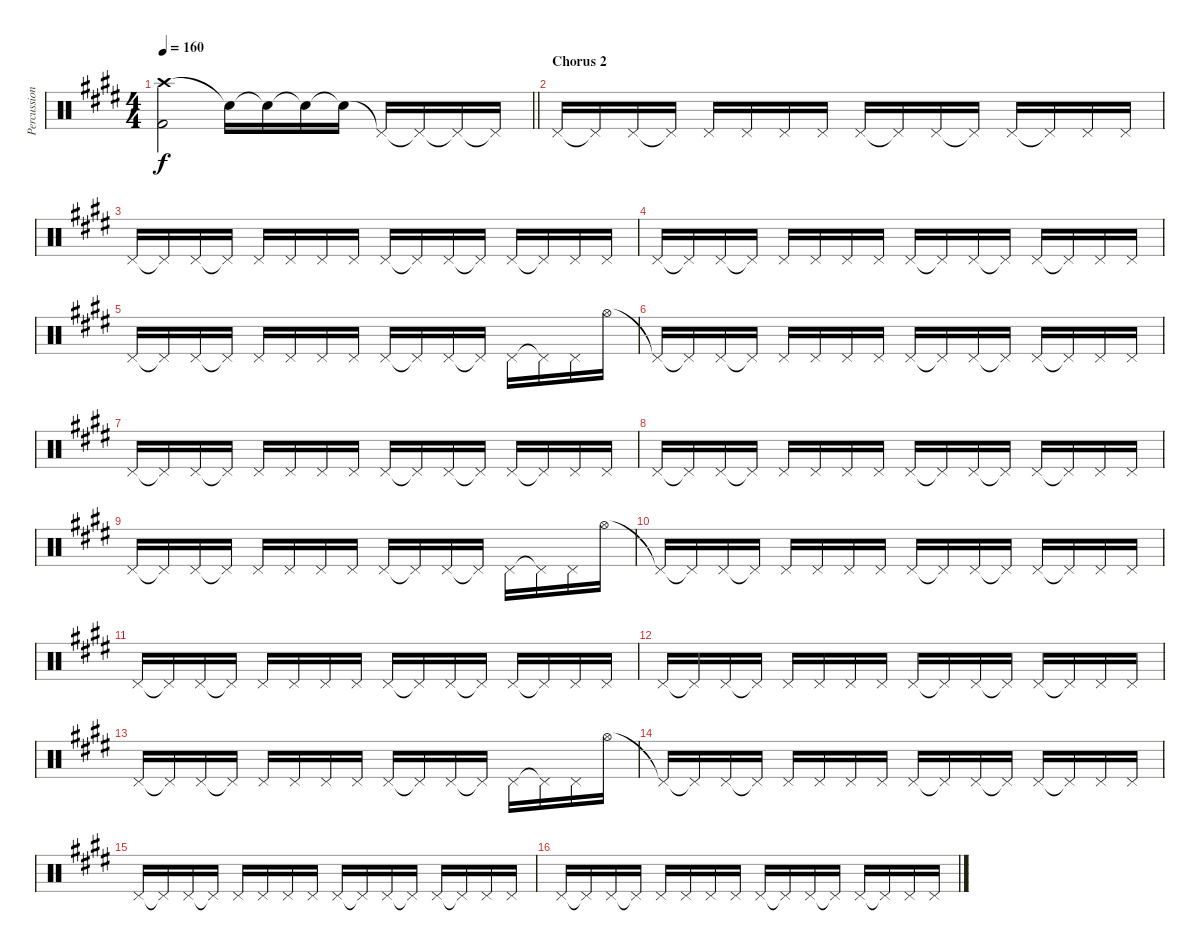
\track ("Percussion" "Percussion") {instrument percussion}
\staff {score}
\articulation defaults
\ts (4 4)
\tempo 160
\clef neutral
\barLineRight lightlight
\ks c#minor
("Crash high (hit)" "Kick (hit) 2").2{dy f} "Snare (hit)"{t}.16 "Snare (hit)"{t}.16 "Snare (hit)"{t}.16 "Snare (hit)"{t}.16 "Pedal Hi-Hat (hit)"{t}.16 "Pedal Hi-Hat (hit)"{t}.16 "Pedal Hi-Hat (hit)"{t}.16 "Pedal Hi-Hat (hit)"{t}.16 |
\section ("" "Chorus 2")
"Pedal Hi-Hat (hit)".16{volume 8} "Pedal Hi-Hat (hit)"{t}.16 "Pedal Hi-Hat (hit)".16 "Pedal Hi-Hat (hit)"{t}.16 "Pedal Hi-Hat (hit)".16 "Pedal Hi-Hat (hit)".16 "Pedal Hi-Hat (hit)".16 "Pedal Hi-Hat (hit)".16 "Pedal Hi-Hat (hit)".16 "Pedal Hi-Hat (hit)"{t}.16 "Pedal Hi-Hat (hit)".16 "Pedal Hi-Hat (hit)"{t}.16 "Pedal Hi-Hat (hit)".16 "Pedal Hi-Hat (hit)"{t}.16 "Pedal Hi-Hat (hit)".16 "Pedal Hi-Hat (hit)".16 |
"Pedal Hi-Hat (hit)".16 "Pedal Hi-Hat (hit)"{t}.16 "Pedal Hi-Hat (hit)".16 "Pedal Hi-Hat (hit)"{t}.16 "Pedal Hi-Hat (hit)".16 "Pedal Hi-Hat (hit)".16 "Pedal Hi-Hat (hit)".16 "Pedal Hi-Hat (hit)".16 "Pedal Hi-Hat (hit)".16 "Pedal Hi-Hat (hit)"{t}.16 "Pedal Hi-Hat (hit)".16 "Pedal Hi-Hat (hit)"{t}.16 "Pedal Hi-Hat (hit)".16 "Pedal Hi-Hat (hit)"{t}.16 "Pedal Hi-Hat (hit)".16 "Pedal Hi-Hat (hit)".16 |
"Pedal Hi-Hat (hit)".16 "Pedal Hi-Hat (hit)"{t}.16 "Pedal Hi-Hat (hit)".16 "Pedal Hi-Hat (hit)"{t}.16 "Pedal Hi-Hat (hit)".16 "Pedal Hi-Hat (hit)".16 "Pedal Hi-Hat (hit)".16 "Pedal Hi-Hat (hit)".16 "Pedal Hi-Hat (hit)".16 "Pedal Hi-Hat (hit)"{t}.16 "Pedal Hi-Hat (hit)".16 "Pedal Hi-Hat (hit)"{t}.16 "Pedal Hi-Hat (hit)".16 "Pedal Hi-Hat (hit)"{t}.16 "Pedal Hi-Hat (hit)".16 "Pedal Hi-Hat (hit)".16 |
"Pedal Hi-Hat (hit)".16 "Pedal Hi-Hat (hit)"{t}.16 "Pedal Hi-Hat (hit)".16 "Pedal Hi-Hat (hit)"{t}.16 "Pedal Hi-Hat (hit)".16 "Pedal Hi-Hat (hit)".16 "Pedal Hi-Hat (hit)".16 "Pedal Hi-Hat (hit)".16 "Pedal Hi-Hat (hit)".16 "Pedal Hi-Hat (hit)"{t}.16 "Pedal Hi-Hat (hit)".16 "Pedal Hi-Hat (hit)"{t}.16 "Pedal Hi-Hat (hit)".16 "Pedal Hi-Hat (hit)"{t}.16 "Pedal Hi-Hat (hit)".16 "Hi-Hat (open)".16 |
"Pedal Hi-Hat (hit)"{t}.16 "Pedal Hi-Hat (hit)"{t}.16 "Pedal Hi-Hat (hit)".16 "Pedal Hi-Hat (hit)"{t}.16 "Pedal Hi-Hat (hit)".16 "Pedal Hi-Hat (hit)".16 "Pedal Hi-Hat (hit)".16 "Pedal Hi-Hat (hit)".16 "Pedal Hi-Hat (hit)".16 "Pedal Hi-Hat (hit)"{t}.16 "Pedal Hi-Hat (hit)".16 "Pedal Hi-Hat (hit)"{t}.16 "Pedal Hi-Hat (hit)".16 "Pedal Hi-Hat (hit)"{t}.16 "Pedal Hi-Hat (hit)".16 "Pedal Hi-Hat (hit)".16 |
"Pedal Hi-Hat (hit)".16 "Pedal Hi-Hat (hit)"{t}.16 "Pedal Hi-Hat (hit)".16 "Pedal Hi-Hat (hit)"{t}.16 "Pedal Hi-Hat (hit)".16 "Pedal Hi-Hat (hit)".16 "Pedal Hi-Hat (hit)".16 "Pedal Hi-Hat (hit)".16 "Pedal Hi-Hat (hit)".16 "Pedal Hi-Hat (hit)"{t}.16 "Pedal Hi-Hat (hit)".16 "Pedal Hi-Hat (hit)"{t}.16 "Pedal Hi-Hat (hit)".16 "Pedal Hi-Hat (hit)"{t}.16 "Pedal Hi-Hat (hit)".16 "Pedal Hi-Hat (hit)".16 |
"Pedal Hi-Hat (hit)".16 "Pedal Hi-Hat (hit)"{t}.16 "Pedal Hi-Hat (hit)".16 "Pedal Hi-Hat (hit)"{t}.16 "Pedal Hi-Hat (hit)".16 "Pedal Hi-Hat (hit)".16 "Pedal Hi-Hat (hit)".16 "Pedal Hi-Hat (hit)".16 "Pedal Hi-Hat (hit)".16 "Pedal Hi-Hat (hit)"{t}.16 "Pedal Hi-Hat (hit)".16 "Pedal Hi-Hat (hit)"{t}.16 "Pedal Hi-Hat (hit)".16 "Pedal Hi-Hat (hit)"{t}.16 "Pedal Hi-Hat (hit)".16 "Pedal Hi-Hat (hit)".16 |
"Pedal Hi-Hat (hit)".16 "Pedal Hi-Hat (hit)"{t}.16 "Pedal Hi-Hat (hit)".16 "Pedal Hi-Hat (hit)"{t}.16 "Pedal Hi-Hat (hit)".16 "Pedal Hi-Hat (hit)".16 "Pedal Hi-Hat (hit)".16 "Pedal Hi-Hat (hit)".16 "Pedal Hi-Hat (hit)".16 "Pedal Hi-Hat (hit)"{t}.16 "Pedal Hi-Hat (hit)".16 "Pedal Hi-Hat (hit)"{t}.16 "Pedal Hi-Hat (hit)".16 "Pedal Hi-Hat (hit)"{t}.16 "Pedal Hi-Hat (hit)".16 "Hi-Hat (open)".16 |
"Pedal Hi-Hat (hit)"{t}.16 "Pedal Hi-Hat (hit)"{t}.16 "Pedal Hi-Hat (hit)".16 "Pedal Hi-Hat (hit)"{t}.16 "Pedal Hi-Hat (hit)".16 "Pedal Hi-Hat (hit)".16 "Pedal Hi-Hat (hit)".16 "Pedal Hi-Hat (hit)".16 "Pedal Hi-Hat (hit)".16 "Pedal Hi-Hat (hit)"{t}.16 "Pedal Hi-Hat (hit)".16 "Pedal Hi-Hat (hit)"{t}.16 "Pedal Hi-Hat (hit)".16 "Pedal Hi-Hat (hit)"{t}.16 "Pedal Hi-Hat (hit)".16 "Pedal Hi-Hat (hit)".16 |
"Pedal Hi-Hat (hit)".16 "Pedal Hi-Hat (hit)"{t}.16 "Pedal Hi-Hat (hit)".16 "Pedal Hi-Hat (hit)"{t}.16 "Pedal Hi-Hat (hit)".16 "Pedal Hi-Hat (hit)".16 "Pedal Hi-Hat (hit)".16 "Pedal Hi-Hat (hit)".16 "Pedal Hi-Hat (hit)".16 "Pedal Hi-Hat (hit)"{t}.16 "Pedal Hi-Hat (hit)".16 "Pedal Hi-Hat (hit)"{t}.16 "Pedal Hi-Hat (hit)".16 "Pedal Hi-Hat (hit)"{t}.16 "Pedal Hi-Hat (hit)".16 "Pedal Hi-Hat (hit)".16 |
"Pedal Hi-Hat (hit)".16 "Pedal Hi-Hat (hit)"{t}.16 "Pedal Hi-Hat (hit)".16 "Pedal Hi-Hat (hit)"{t}.16 "Pedal Hi-Hat (hit)".16 "Pedal Hi-Hat (hit)".16 "Pedal Hi-Hat (hit)".16 "Pedal Hi-Hat (hit)".16 "Pedal Hi-Hat (hit)".16 "Pedal Hi-Hat (hit)"{t}.16 "Pedal Hi-Hat (hit)".16 "Pedal Hi-Hat (hit)"{t}.16 "Pedal Hi-Hat (hit)".16 "Pedal Hi-Hat (hit)"{t}.16 "Pedal Hi-Hat (hit)".16 "Pedal Hi-Hat (hit)".16 |
"Pedal Hi-Hat (hit)".16 "Pedal Hi-Hat (hit)"{t}.16 "Pedal Hi-Hat (hit)".16 "Pedal Hi-Hat (hit)"{t}.16 "Pedal Hi-Hat (hit)".16 "Pedal Hi-Hat (hit)".16 "Pedal Hi-Hat (hit)".16 "Pedal Hi-Hat (hit)".16 "Pedal Hi-Hat (hit)".16 "Pedal Hi-Hat (hit)"{t}.16 "Pedal Hi-Hat (hit)".16 "Pedal Hi-Hat (hit)"{t}.16 "Pedal Hi-Hat (hit)".16 "Pedal Hi-Hat (hit)"{t}.16 "Pedal Hi-Hat (hit)".16 "Hi-Hat (open)".16 |
"Pedal Hi-Hat (hit)"{t}.16 "Pedal Hi-Hat (hit)"{t}.16 "Pedal Hi-Hat (hit)".16 "Pedal Hi-Hat (hit)"{t}.16 "Pedal Hi-Hat (hit)".16 "Pedal Hi-Hat (hit)".16 "Pedal Hi-Hat (hit)".16 "Pedal Hi-Hat (hit)".16 "Pedal Hi-Hat (hit)".16 "Pedal Hi-Hat (hit)"{t}.16 "Pedal Hi-Hat (hit)".16 "Pedal Hi-Hat (hit)"{t}.16 "Pedal Hi-Hat (hit)".16 "Pedal Hi-Hat (hit)"{t}.16 "Pedal Hi-Hat (hit)".16 "Pedal Hi-Hat (hit)".16 |
"Pedal Hi-Hat (hit)".16 "Pedal Hi-Hat (hit)"{t}.16 "Pedal Hi-Hat (hit)".16 "Pedal Hi-Hat (hit)"{t}.16 "Pedal Hi-Hat (hit)".16 "Pedal Hi-Hat (hit)".16 "Pedal Hi-Hat (hit)".16 "Pedal Hi-Hat (hit)".16 "Pedal Hi-Hat (hit)".16 "Pedal Hi-Hat (hit)"{t}.16 "Pedal Hi-Hat (hit)".16 "Pedal Hi-Hat (hit)"{t}.16 "Pedal Hi-Hat (hit)".16 "Pedal Hi-Hat (hit)"{t}.16 "Pedal Hi-Hat (hit)".16 "Pedal Hi-Hat (hit)".16 |
"Pedal Hi-Hat (hit)".16{volume 4} "Pedal Hi-Hat (hit)"{t}.16 "Pedal Hi-Hat (hit)".16 "Pedal Hi-Hat (hit)"{t}.16 "Pedal Hi-Hat (hit)".16 "Pedal Hi-Hat (hit)".16 "Pedal Hi-Hat (hit)".16 "Pedal Hi-Hat (hit)".16 "Pedal Hi-Hat (hit)".16 "Pedal Hi-Hat (hit)"{t}.16 "Pedal Hi-Hat (hit)".16 "Pedal Hi-Hat (hit)"{t}.16 "Pedal Hi-Hat (hit)".16 "Pedal Hi-Hat (hit)"{t}.16 "Pedal Hi-Hat (hit)".16 "Pedal Hi-Hat (hit)".16
